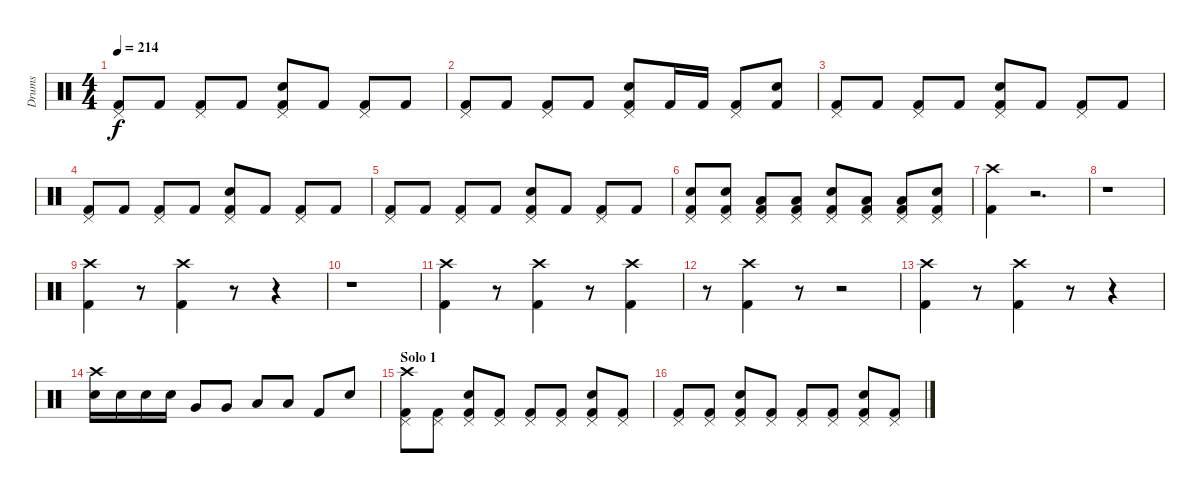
\track ("Drums" "Drums") {instrument percussion}
\staff {score}
\articulation defaults
\ts (4 4)
\tempo 214
\clef neutral
\ks c
("Pedal Hi-Hat (hit)" "Kick (hit) 2").8{dy f} "Kick (hit) 2".8 ("Pedal Hi-Hat (hit)" "Kick (hit) 2").8 "Kick (hit) 2".8 ("Pedal Hi-Hat (hit)" "Electric Snare (hit)" "Kick (hit) 2").8 "Kick (hit) 2".8 ("Pedal Hi-Hat (hit)" "Kick (hit) 2").8 "Kick (hit) 2".8 |
("Pedal Hi-Hat (hit)" "Kick (hit) 2").8 "Kick (hit) 2".8 ("Pedal Hi-Hat (hit)" "Kick (hit) 2").8 "Kick (hit) 2".8 ("Pedal Hi-Hat (hit)" "Electric Snare (hit)" "Kick (hit) 2").8 "Kick (hit) 2".16 "Kick (hit) 2".16 ("Pedal Hi-Hat (hit)" "Kick (hit) 2").8 ("Electric Snare (hit)" "Kick (hit) 2").8 |
("Pedal Hi-Hat (hit)" "Kick (hit) 2").8 "Kick (hit) 2".8 ("Pedal Hi-Hat (hit)" "Kick (hit) 2").8 "Kick (hit) 2".8 ("Pedal Hi-Hat (hit)" "Electric Snare (hit)" "Kick (hit) 2").8 "Kick (hit) 2".8 ("Pedal Hi-Hat (hit)" "Kick (hit) 2").8 "Kick (hit) 2".8 |
("Pedal Hi-Hat (hit)" "Kick (hit) 2").8 "Kick (hit) 2".8 ("Pedal Hi-Hat (hit)" "Kick (hit) 2").8 "Kick (hit) 2".8 ("Pedal Hi-Hat (hit)" "Electric Snare (hit)" "Kick (hit) 2").8 "Kick (hit) 2".8 ("Pedal Hi-Hat (hit)" "Kick (hit) 2").8 "Kick (hit) 2".8 |
("Pedal Hi-Hat (hit)" "Kick (hit) 2").8 "Kick (hit) 2".8 ("Pedal Hi-Hat (hit)" "Kick (hit) 2").8 "Kick (hit) 2".8 ("Pedal Hi-Hat (hit)" "Electric Snare (hit)" "Kick (hit) 2").8 "Kick (hit) 2".8 ("Pedal Hi-Hat (hit)" "Kick (hit) 2").8 "Kick (hit) 2".8 |
("Pedal Hi-Hat (hit)" "Electric Snare (hit)" "Kick (hit) 2").8 ("Pedal Hi-Hat (hit)" "Electric Snare (hit)" "Kick (hit) 2").8 ("Pedal Hi-Hat (hit)" "Low Floor Tom (hit)" "Kick (hit) 2").8 ("Pedal Hi-Hat (hit)" "Low Floor Tom (hit)" "Kick (hit) 2").8 ("Pedal Hi-Hat (hit)" "Electric Snare (hit)" "Kick (hit) 2").8 ("Pedal Hi-Hat (hit)" "Low Floor Tom (hit)" "Kick (hit) 2").8 ("Pedal Hi-Hat (hit)" "Low Floor Tom (hit)" "Kick (hit) 2").8 ("Pedal Hi-Hat (hit)" "Electric Snare (hit)" "Kick (hit) 2").8 |
("Crash high (hit)" "Kick (hit) 2").4 r.2{d} |
r.1 |
("Crash high (hit)" "Kick (hit) 2").4 r.8 ("Crash high (hit)" "Kick (hit) 2").4 r.8 r.4 |
r.1 |
("Crash high (hit)" "Kick (hit) 2").4 r.8 ("Crash high (hit)" "Kick (hit) 2").4 r.8 ("Crash high (hit)" "Kick (hit) 2").4 |
r.8 ("Crash high (hit)" "Kick (hit) 2").4 r.8 r.2 |
("Crash high (hit)" "Kick (hit) 2").4 r.8 ("Crash high (hit)" "Kick (hit) 2").4 r.8 r.4 |
("Crash high (hit)" "Electric Snare (hit)").16 "Electric Snare (hit)".16 "Electric Snare (hit)".16 "Electric Snare (hit)".16 "Very Low Tom (hit)".8 "Very Low Tom (hit)".8 "Low Floor Tom (hit)".8 "Low Floor Tom (hit)".8 "Kick (hit) 2".8 "Electric Snare (hit)".8 |
\section ("" "Solo 1")
("Pedal Hi-Hat (hit)" "Crash high (hit)" "Kick (hit) 2").8 ("Pedal Hi-Hat (hit)" "Kick (hit) 2").8 ("Pedal Hi-Hat (hit)" "Electric Snare (hit)" "Kick (hit) 2").8 ("Pedal Hi-Hat (hit)" "Kick (hit) 2").8 ("Pedal Hi-Hat (hit)" "Kick (hit) 2").8 ("Pedal Hi-Hat (hit)" "Kick (hit) 2").8 ("Pedal Hi-Hat (hit)" "Electric Snare (hit)" "Kick (hit) 2").8 ("Pedal Hi-Hat (hit)" "Kick (hit) 2").8 |
("Pedal Hi-Hat (hit)" "Kick (hit) 2").8 ("Pedal Hi-Hat (hit)" "Kick (hit) 2").8 ("Pedal Hi-Hat (hit)" "Electric Snare (hit)" "Kick (hit) 2").8 ("Pedal Hi-Hat (hit)" "Kick (hit) 2").8 ("Pedal Hi-Hat (hit)" "Kick (hit) 2").8 ("Pedal Hi-Hat (hit)" "Kick (hit) 2").8 ("Pedal Hi-Hat (hit)" "Electric Snare (hit)" "Kick (hit) 2").8 ("Pedal Hi-Hat (hit)" "Kick (hit) 2").8
